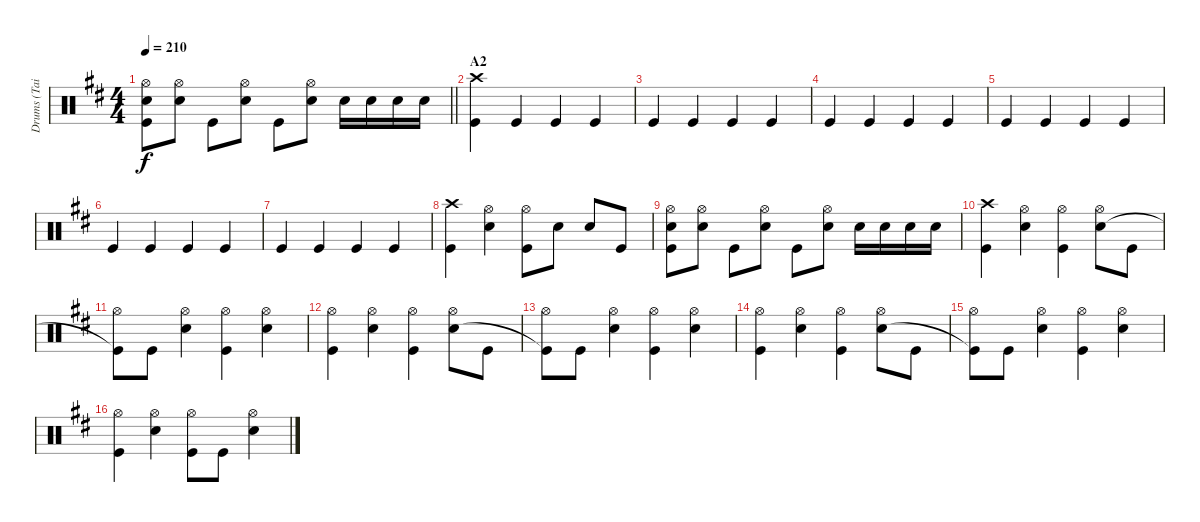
\track ("Drums (Tainaka Ritsu)" "Drums (Tai") {instrument percussion}
\staff {score}
\articulation defaults
\ts (4 4)
\tempo 210
\clef neutral
\barLineRight lightlight
\ks d
("Hi-Hat (open)" "Snare (hit) 2" "Kick (hit)").8{dy f} ("Hi-Hat (open)" "Snare (hit) 2").8 "Kick (hit)".8 ("Hi-Hat (open)" "Snare (hit) 2").8 "Kick (hit)".8 ("Hi-Hat (open)" "Snare (hit) 2").8 "Snare (hit) 2".16 "Snare (hit) 2".16 "Snare (hit) 2".16 "Snare (hit) 2".16 |
\section ("" "A2")
("Crash high (hit)" "Kick (hit)").4 "Kick (hit)".4 "Kick (hit)".4 "Kick (hit)".4 |
"Kick (hit)".4 "Kick (hit)".4 "Kick (hit)".4 "Kick (hit)".4 |
"Kick (hit)".4 "Kick (hit)".4 "Kick (hit)".4 "Kick (hit)".4 |
"Kick (hit)".4 "Kick (hit)".4 "Kick (hit)".4 "Kick (hit)".4 |
"Kick (hit)".4 "Kick (hit)".4 "Kick (hit)".4 "Kick (hit)".4 |
"Kick (hit)".4 "Kick (hit)".4 "Kick (hit)".4 "Kick (hit)".4 |
("Crash high (hit)" "Kick (hit)").4 ("Hi-Hat (open)" "Snare (hit) 2").4 ("Hi-Hat (open)" "Kick (hit)").8 "Snare (hit) 2".8 "Snare (hit) 2".8 "Kick (hit)".8 |
("Hi-Hat (open)" "Snare (hit) 2" "Kick (hit)").8 ("Hi-Hat (open)" "Snare (hit) 2").8 "Kick (hit)".8 ("Hi-Hat (open)" "Snare (hit) 2").8 "Kick (hit)".8 ("Hi-Hat (open)" "Snare (hit) 2").8 "Snare (hit) 2".16 "Snare (hit) 2".16 "Snare (hit) 2".16 "Snare (hit) 2".16 |
("Crash high (hit)" "Kick (hit)").4 ("Hi-Hat (open)" "Snare (hit) 2").4 ("Hi-Hat (open)" "Kick (hit)").4 ("Hi-Hat (open)" "Snare (hit) 2").8 "Kick (hit)".8 |
("Hi-Hat (open)" "Kick (hit)"{t}).8 "Kick (hit)".8 ("Hi-Hat (open)" "Snare (hit) 2").4 ("Hi-Hat (open)" "Kick (hit)").4 ("Hi-Hat (open)" "Snare (hit) 2").4 |
("Hi-Hat (open)" "Kick (hit)").4 ("Hi-Hat (open)" "Snare (hit) 2").4 ("Hi-Hat (open)" "Kick (hit)").4 ("Hi-Hat (open)" "Snare (hit) 2").8 "Kick (hit)".8 |
("Hi-Hat (open)" "Kick (hit)"{t}).8 "Kick (hit)".8 ("Hi-Hat (open)" "Snare (hit) 2").4 ("Hi-Hat (open)" "Kick (hit)").4 ("Hi-Hat (open)" "Snare (hit) 2").4 |
("Hi-Hat (open)" "Kick (hit)").4 ("Hi-Hat (open)" "Snare (hit) 2").4 ("Hi-Hat (open)" "Kick (hit)").4 ("Hi-Hat (open)" "Snare (hit) 2").8 "Kick (hit)".8 |
("Hi-Hat (open)" "Kick (hit)"{t}).8 "Kick (hit)".8 ("Hi-Hat (open)" "Snare (hit) 2").4 ("Hi-Hat (open)" "Kick (hit)").4 ("Hi-Hat (open)" "Snare (hit) 2").4 |
("Hi-Hat (open)" "Kick (hit)").4 ("Hi-Hat (open)" "Snare (hit) 2").4 ("Hi-Hat (open)" "Kick (hit)").8 "Kick (hit)".8 ("Hi-Hat (open)" "Snare (hit) 2").4
